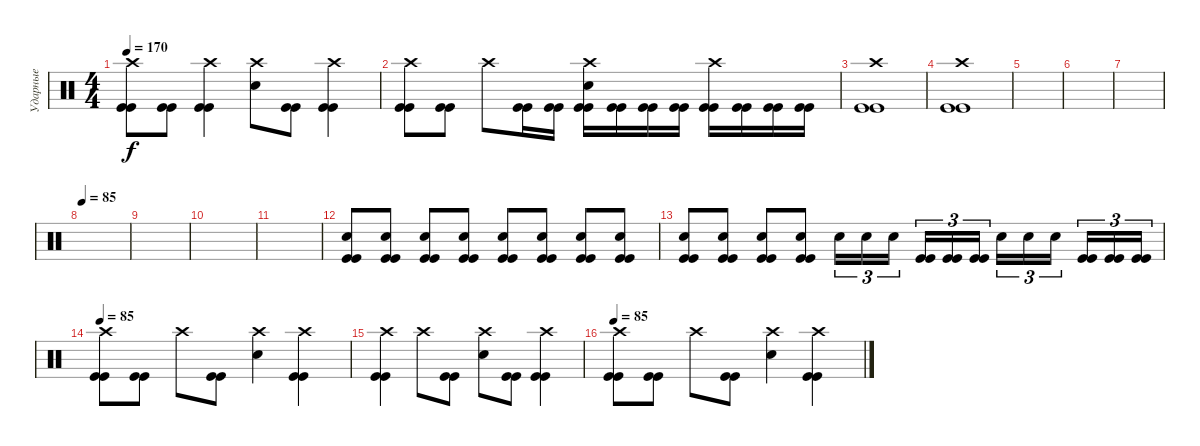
\track ("Ударные" "Ударные") {instrument percussion}
\staff {score}
\articulation defaults
\ts (4 4)
\tempo 170
\clef neutral
\ks c
("Crash high (hit)" "Kick (hit)" "Kick (hit)").8{dy f} ("Kick (hit)" "Kick (hit)").8 ("Crash high (hit)" "Kick (hit)" "Kick (hit)").4 ("Crash high (hit)" "Electric Snare (hit)").8 ("Kick (hit)" "Kick (hit)").8 ("Crash high (hit)" "Kick (hit)" "Kick (hit)").4 |
("Crash high (hit)" "Kick (hit)" "Kick (hit)").8 ("Kick (hit)" "Kick (hit)").8 "Crash high (hit)".8 ("Kick (hit)" "Kick (hit)").16 ("Kick (hit)" "Kick (hit)").16 ("Crash high (hit)" "Electric Snare (hit)" "Kick (hit)" "Kick (hit)").16 ("Kick (hit)" "Kick (hit)").16 ("Kick (hit)" "Kick (hit)").16 ("Kick (hit)" "Kick (hit)").16 ("Crash high (hit)" "Kick (hit)" "Kick (hit)").16 ("Kick (hit)" "Kick (hit)").16 ("Kick (hit)" "Kick (hit)").16 ("Kick (hit)" "Kick (hit)").16 |
("Crash high (hit)" "Kick (hit)" "Kick (hit)").1 |
("Crash high (hit)" "Kick (hit)" "Kick (hit)").1 |
|
|
|
\tempo 85
|
|
|
|
("Electric Snare (hit)" "Kick (hit)" "Kick (hit)").8 ("Electric Snare (hit)" "Kick (hit)" "Kick (hit)").8 ("Electric Snare (hit)" "Kick (hit)" "Kick (hit)").8 ("Electric Snare (hit)" "Kick (hit)" "Kick (hit)").8 ("Electric Snare (hit)" "Kick (hit)" "Kick (hit)").8 ("Electric Snare (hit)" "Kick (hit)" "Kick (hit)").8 ("Electric Snare (hit)" "Kick (hit)" "Kick (hit)").8 ("Electric Snare (hit)" "Kick (hit)" "Kick (hit)").8 |
("Electric Snare (hit)" "Kick (hit)" "Kick (hit)").8 ("Electric Snare (hit)" "Kick (hit)" "Kick (hit)").8 ("Electric Snare (hit)" "Kick (hit)" "Kick (hit)").8 ("Electric Snare (hit)" "Kick (hit)" "Kick (hit)").8 "Electric Snare (hit)".16{tu (3 2)} "Electric Snare (hit)".16{tu (3 2)} "Electric Snare (hit)".16{tu (3 2) beam splitsecondary} ("Kick (hit)" "Kick (hit)").16{tu (3 2)} ("Kick (hit)" "Kick (hit)").16{tu (3 2)} ("Kick (hit)" "Kick (hit)").16{tu (3 2)} "Electric Snare (hit)".16{tu (3 2)} "Electric Snare (hit)".16{tu (3 2)} "Electric Snare (hit)".16{tu (3 2) beam splitsecondary} ("Kick (hit)" "Kick (hit)").16{tu (3 2)} ("Kick (hit)" "Kick (hit)").16{tu (3 2)} ("Kick (hit)" "Kick (hit)").16{tu (3 2)} |
\tempo 85
("Crash high (hit)" "Kick (hit)" "Kick (hit)").8 ("Kick (hit)" "Kick (hit)").8 "Crash high (hit)".8 ("Kick (hit)" "Kick (hit)").8 ("Crash high (hit)" "Electric Snare (hit)").4 ("Crash high (hit)" "Kick (hit)" "Kick (hit)").4 |
("Crash high (hit)" "Kick (hit)" "Kick (hit)").4 "Crash high (hit)".8 ("Kick (hit)" "Kick (hit)").8 ("Crash high (hit)" "Electric Snare (hit)").8 ("Kick (hit)" "Kick (hit)").8 ("Crash high (hit)" "Kick (hit)" "Kick (hit)").4 |
\tempo 85
("Crash high (hit)" "Kick (hit)" "Kick (hit)").8 ("Kick (hit)" "Kick (hit)").8 "Crash high (hit)".8 ("Kick (hit)" "Kick (hit)").8 ("Crash high (hit)" "Electric Snare (hit)").4 ("Crash high (hit)" "Kick (hit)" "Kick (hit)").4
